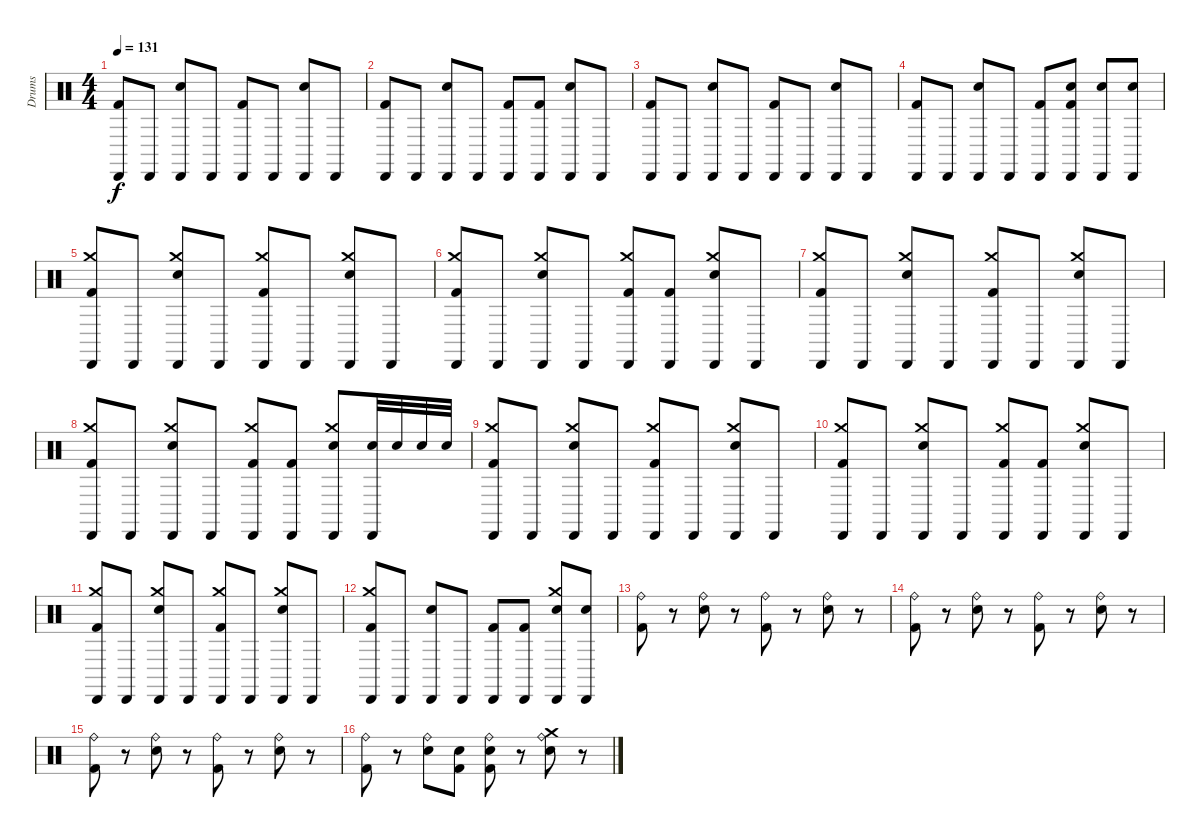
\track ("Drums" "Drums") {instrument percussion}
\staff {score}
\articulation defaults
\ts (4 4)
\tempo 131
\clef neutral
\ks c
("Cabasa (hit)" "Kick (hit) 2").8{dy f} "Cabasa (hit)".8 ("Cabasa (hit)" "Electric Snare (hit)").8 "Cabasa (hit)".8 ("Cabasa (hit)" "Kick (hit) 2").8 "Cabasa (hit)".8 ("Cabasa (hit)" "Electric Snare (hit)").8 "Cabasa (hit)".8 |
("Cabasa (hit)" "Kick (hit) 2").8 "Cabasa (hit)".8 ("Cabasa (hit)" "Electric Snare (hit)").8 "Cabasa (hit)".8 ("Cabasa (hit)" "Kick (hit) 2").8 ("Cabasa (hit)" "Kick (hit) 2").8 ("Cabasa (hit)" "Electric Snare (hit)").8 "Cabasa (hit)".8 |
("Cabasa (hit)" "Kick (hit) 2").8 "Cabasa (hit)".8 ("Cabasa (hit)" "Electric Snare (hit)").8 "Cabasa (hit)".8 ("Cabasa (hit)" "Kick (hit) 2").8 "Cabasa (hit)".8 ("Cabasa (hit)" "Electric Snare (hit)").8 "Cabasa (hit)".8 |
("Cabasa (hit)" "Kick (hit) 2").8 "Cabasa (hit)".8 ("Cabasa (hit)" "Electric Snare (hit)").8 "Cabasa (hit)".8 ("Cabasa (hit)" "Kick (hit) 2").8 ("Cabasa (hit)" "Electric Snare (hit)" "Kick (hit) 2").8 ("Cabasa (hit)" "Electric Snare (hit)").8 ("Cabasa (hit)" "Electric Snare (hit)").8 |
("Crash medium (hit)" "Cabasa (hit)" "Kick (hit) 2").8 "Cabasa (hit)".8 ("Crash medium (hit)" "Cabasa (hit)" "Electric Snare (hit)").8 "Cabasa (hit)".8 ("Crash medium (hit)" "Cabasa (hit)" "Kick (hit) 2").8 "Cabasa (hit)".8 ("Crash medium (hit)" "Cabasa (hit)" "Electric Snare (hit)").8 "Cabasa (hit)".8 |
("Crash medium (hit)" "Cabasa (hit)" "Kick (hit) 2").8 "Cabasa (hit)".8 ("Crash medium (hit)" "Cabasa (hit)" "Electric Snare (hit)").8 "Cabasa (hit)".8 ("Crash medium (hit)" "Cabasa (hit)" "Kick (hit) 2").8 ("Cabasa (hit)" "Kick (hit) 2").8 ("Crash medium (hit)" "Cabasa (hit)" "Electric Snare (hit)").8 "Cabasa (hit)".8 |
("Crash medium (hit)" "Cabasa (hit)" "Kick (hit) 2").8 "Cabasa (hit)".8 ("Crash medium (hit)" "Cabasa (hit)" "Electric Snare (hit)").8 "Cabasa (hit)".8 ("Crash medium (hit)" "Cabasa (hit)" "Kick (hit) 2").8 "Cabasa (hit)".8 ("Crash medium (hit)" "Cabasa (hit)" "Electric Snare (hit)").8 "Cabasa (hit)".8 |
("Crash medium (hit)" "Cabasa (hit)" "Kick (hit) 2").8 "Cabasa (hit)".8 ("Crash medium (hit)" "Cabasa (hit)" "Electric Snare (hit)").8 "Cabasa (hit)".8 ("Crash medium (hit)" "Cabasa (hit)" "Kick (hit) 2").8 ("Cabasa (hit)" "Kick (hit) 2").8 ("Crash medium (hit)" "Cabasa (hit)" "Electric Snare (hit)").8 ("Cabasa (hit)" "Electric Snare (hit)").32 "Electric Snare (hit)".32 "Electric Snare (hit)".32 "Electric Snare (hit)".32 |
("Crash medium (hit)" "Cabasa (hit)" "Kick (hit) 2").8 "Cabasa (hit)".8 ("Crash medium (hit)" "Cabasa (hit)" "Electric Snare (hit)").8 "Cabasa (hit)".8 ("Crash medium (hit)" "Cabasa (hit)" "Kick (hit) 2").8 "Cabasa (hit)".8 ("Crash medium (hit)" "Cabasa (hit)" "Electric Snare (hit)").8 "Cabasa (hit)".8 |
("Crash medium (hit)" "Cabasa (hit)" "Kick (hit) 2").8 "Cabasa (hit)".8 ("Crash medium (hit)" "Cabasa (hit)" "Electric Snare (hit)").8 "Cabasa (hit)".8 ("Crash medium (hit)" "Cabasa (hit)" "Kick (hit) 2").8 ("Cabasa (hit)" "Kick (hit) 2").8 ("Crash medium (hit)" "Cabasa (hit)" "Electric Snare (hit)").8 "Cabasa (hit)".8 |
("Crash medium (hit)" "Cabasa (hit)" "Kick (hit) 2").8 "Cabasa (hit)".8 ("Crash medium (hit)" "Cabasa (hit)" "Electric Snare (hit)").8 "Cabasa (hit)".8 ("Crash medium (hit)" "Cabasa (hit)" "Kick (hit) 2").8 "Cabasa (hit)".8 ("Crash medium (hit)" "Cabasa (hit)" "Electric Snare (hit)").8 "Cabasa (hit)".8 |
("Crash medium (hit)" "Cabasa (hit)" "Kick (hit) 2").8 "Cabasa (hit)".8 ("Cabasa (hit)" "Electric Snare (hit)").8 "Cabasa (hit)".8 ("Cabasa (hit)" "Kick (hit) 2").8 ("Cabasa (hit)" "Kick (hit) 2").8 ("Crash medium (hit)" "Cabasa (hit)" "Electric Snare (hit)").8 ("Cabasa (hit)" "Electric Snare (hit)").8 |
("Ride (bell)" "Kick (hit) 2").8 r.8 ("Ride (bell)" "Electric Snare (hit)").8 r.8 ("Ride (bell)" "Kick (hit) 2").8 r.8 ("Ride (bell)" "Electric Snare (hit)").8 r.8 |
("Ride (bell)" "Kick (hit) 2").8 r.8 ("Ride (bell)" "Electric Snare (hit)").8 r.8 ("Ride (bell)" "Kick (hit) 2").8 r.8 ("Ride (bell)" "Electric Snare (hit)").8 r.8 |
("Ride (bell)" "Kick (hit) 2").8 r.8 ("Ride (bell)" "Electric Snare (hit)").8 r.8 ("Ride (bell)" "Kick (hit) 2").8 r.8 ("Ride (bell)" "Electric Snare (hit)").8 r.8 |
("Ride (bell)" "Kick (hit) 2").8 r.8 ("Ride (bell)" "Electric Snare (hit)").8 ("Electric Snare (hit)" "Kick (hit) 2").8 ("Ride (bell)" "Electric Snare (hit)" "Kick (hit) 2").8 r.8 ("Crash medium (hit)" "Ride (bell)" "Electric Snare (hit)").8 r.8
